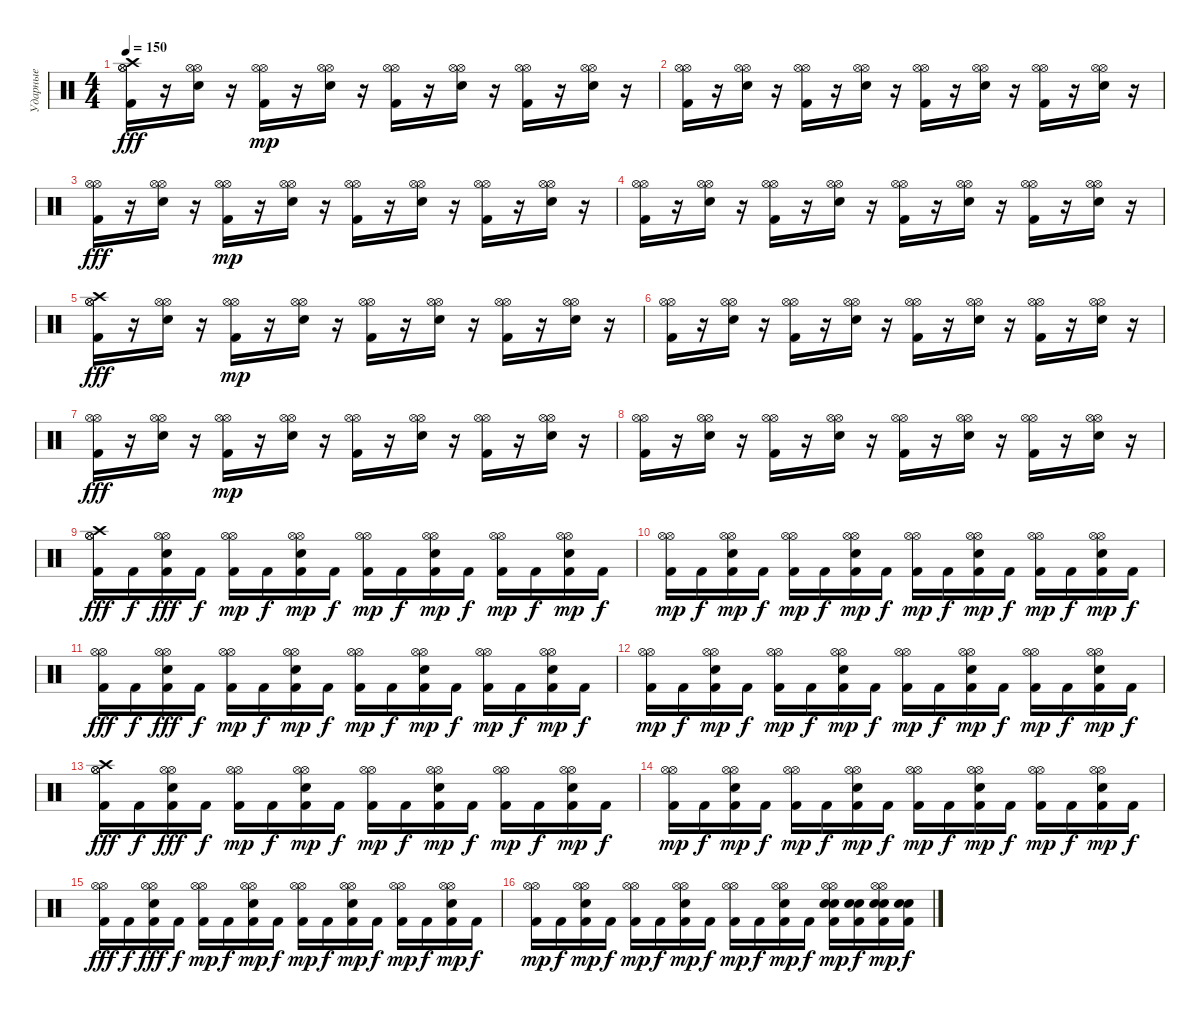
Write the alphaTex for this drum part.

\track ("Ударные" "Ударные") {instrument percussion}
\staff {score}
\articulation defaults
\ts (4 4)
\tempo 150
\clef neutral
\ks c
("Crash high (hit)" "Hi-Hat (open)" "Hi-Hat (open)" "Kick (hit) 2").16{dy fff} r.16 ("Hi-Hat (open)" "Hi-Hat (open)" "Snare (hit) 2").16 r.16 ("Hi-Hat (open)" "Hi-Hat (open)" "Kick (hit) 2").16{dy mp} r.16 ("Hi-Hat (open)" "Hi-Hat (open)" "Snare (hit) 2").16 r.16 ("Hi-Hat (open)" "Hi-Hat (open)" "Kick (hit) 2").16 r.16 ("Hi-Hat (open)" "Hi-Hat (open)" "Snare (hit) 2").16 r.16 ("Hi-Hat (open)" "Hi-Hat (open)" "Kick (hit) 2").16 r.16 ("Hi-Hat (open)" "Hi-Hat (open)" "Snare (hit) 2").16 r.16 |
("Hi-Hat (open)" "Hi-Hat (open)" "Kick (hit) 2").16 r.16 ("Hi-Hat (open)" "Hi-Hat (open)" "Snare (hit) 2").16 r.16 ("Hi-Hat (open)" "Hi-Hat (open)" "Kick (hit) 2").16 r.16 ("Hi-Hat (open)" "Hi-Hat (open)" "Snare (hit) 2").16 r.16 ("Hi-Hat (open)" "Hi-Hat (open)" "Kick (hit) 2").16 r.16 ("Hi-Hat (open)" "Hi-Hat (open)" "Snare (hit) 2").16 r.16 ("Hi-Hat (open)" "Hi-Hat (open)" "Kick (hit) 2").16 r.16 ("Hi-Hat (open)" "Hi-Hat (open)" "Snare (hit) 2").16 r.16 |
("Hi-Hat (open)" "Hi-Hat (open)" "Kick (hit) 2").16{dy fff} r.16 ("Hi-Hat (open)" "Hi-Hat (open)" "Snare (hit) 2").16 r.16 ("Hi-Hat (open)" "Hi-Hat (open)" "Kick (hit) 2").16{dy mp} r.16 ("Hi-Hat (open)" "Hi-Hat (open)" "Snare (hit) 2").16 r.16 ("Hi-Hat (open)" "Hi-Hat (open)" "Kick (hit) 2").16 r.16 ("Hi-Hat (open)" "Hi-Hat (open)" "Snare (hit) 2").16 r.16 ("Hi-Hat (open)" "Hi-Hat (open)" "Kick (hit) 2").16 r.16 ("Hi-Hat (open)" "Hi-Hat (open)" "Snare (hit) 2").16 r.16 |
("Hi-Hat (open)" "Hi-Hat (open)" "Kick (hit) 2").16 r.16 ("Hi-Hat (open)" "Hi-Hat (open)" "Snare (hit) 2").16 r.16 ("Hi-Hat (open)" "Hi-Hat (open)" "Kick (hit) 2").16 r.16 ("Hi-Hat (open)" "Hi-Hat (open)" "Snare (hit) 2").16 r.16 ("Hi-Hat (open)" "Hi-Hat (open)" "Kick (hit) 2").16 r.16 ("Hi-Hat (open)" "Hi-Hat (open)" "Snare (hit) 2").16 r.16 ("Hi-Hat (open)" "Hi-Hat (open)" "Kick (hit) 2").16 r.16 ("Hi-Hat (open)" "Hi-Hat (open)" "Snare (hit) 2").16 r.16 |
("Crash high (hit)" "Hi-Hat (open)" "Hi-Hat (open)" "Kick (hit) 2").16{dy fff} r.16 ("Hi-Hat (open)" "Hi-Hat (open)" "Snare (hit) 2").16 r.16 ("Hi-Hat (open)" "Hi-Hat (open)" "Kick (hit) 2").16{dy mp} r.16 ("Hi-Hat (open)" "Hi-Hat (open)" "Snare (hit) 2").16 r.16 ("Hi-Hat (open)" "Hi-Hat (open)" "Kick (hit) 2").16 r.16 ("Hi-Hat (open)" "Hi-Hat (open)" "Snare (hit) 2").16 r.16 ("Hi-Hat (open)" "Hi-Hat (open)" "Kick (hit) 2").16 r.16 ("Hi-Hat (open)" "Hi-Hat (open)" "Snare (hit) 2").16 r.16 |
("Hi-Hat (open)" "Hi-Hat (open)" "Kick (hit) 2").16 r.16 ("Hi-Hat (open)" "Hi-Hat (open)" "Snare (hit) 2").16 r.16 ("Hi-Hat (open)" "Hi-Hat (open)" "Kick (hit) 2").16 r.16 ("Hi-Hat (open)" "Hi-Hat (open)" "Snare (hit) 2").16 r.16 ("Hi-Hat (open)" "Hi-Hat (open)" "Kick (hit) 2").16 r.16 ("Hi-Hat (open)" "Hi-Hat (open)" "Snare (hit) 2").16 r.16 ("Hi-Hat (open)" "Hi-Hat (open)" "Kick (hit) 2").16 r.16 ("Hi-Hat (open)" "Hi-Hat (open)" "Snare (hit) 2").16 r.16 |
("Hi-Hat (open)" "Hi-Hat (open)" "Kick (hit) 2").16{dy fff} r.16 ("Hi-Hat (open)" "Hi-Hat (open)" "Snare (hit) 2").16 r.16 ("Hi-Hat (open)" "Hi-Hat (open)" "Kick (hit) 2").16{dy mp} r.16 ("Hi-Hat (open)" "Hi-Hat (open)" "Snare (hit) 2").16 r.16 ("Hi-Hat (open)" "Hi-Hat (open)" "Kick (hit) 2").16 r.16 ("Hi-Hat (open)" "Hi-Hat (open)" "Snare (hit) 2").16 r.16 ("Hi-Hat (open)" "Hi-Hat (open)" "Kick (hit) 2").16 r.16 ("Hi-Hat (open)" "Hi-Hat (open)" "Snare (hit) 2").16 r.16 |
("Hi-Hat (open)" "Hi-Hat (open)" "Kick (hit) 2").16 r.16 ("Hi-Hat (open)" "Hi-Hat (open)" "Snare (hit) 2").16 r.16 ("Hi-Hat (open)" "Hi-Hat (open)" "Kick (hit) 2").16 r.16 ("Hi-Hat (open)" "Hi-Hat (open)" "Snare (hit) 2").16 r.16 ("Hi-Hat (open)" "Hi-Hat (open)" "Kick (hit) 2").16 r.16 ("Hi-Hat (open)" "Hi-Hat (open)" "Snare (hit) 2").16 r.16 ("Hi-Hat (open)" "Hi-Hat (open)" "Kick (hit) 2").16 r.16 ("Hi-Hat (open)" "Hi-Hat (open)" "Snare (hit) 2").16 r.16 |
("Crash high (hit)" "Hi-Hat (open)" "Hi-Hat (open)" "Kick (hit) 2").16{dy fff} "Kick (hit) 2".16{dy f} ("Hi-Hat (open)" "Hi-Hat (open)" "Snare (hit) 2" "Kick (hit) 2").16{dy fff} "Kick (hit) 2".16{dy f} ("Hi-Hat (open)" "Hi-Hat (open)" "Kick (hit) 2").16{dy mp} "Kick (hit) 2".16{dy f} ("Hi-Hat (open)" "Hi-Hat (open)" "Snare (hit) 2" "Kick (hit) 2").16{dy mp} "Kick (hit) 2".16{dy f} ("Hi-Hat (open)" "Hi-Hat (open)" "Kick (hit) 2").16{dy mp} "Kick (hit) 2".16{dy f} ("Hi-Hat (open)" "Hi-Hat (open)" "Snare (hit) 2" "Kick (hit) 2").16{dy mp} "Kick (hit) 2".16{dy f} ("Hi-Hat (open)" "Hi-Hat (open)" "Kick (hit) 2").16{dy mp} "Kick (hit) 2".16{dy f} ("Hi-Hat (open)" "Hi-Hat (open)" "Snare (hit) 2" "Kick (hit) 2").16{dy mp} "Kick (hit) 2".16{dy f} |
("Hi-Hat (open)" "Hi-Hat (open)" "Kick (hit) 2").16{dy mp} "Kick (hit) 2".16{dy f} ("Hi-Hat (open)" "Hi-Hat (open)" "Snare (hit) 2" "Kick (hit) 2").16{dy mp} "Kick (hit) 2".16{dy f} ("Hi-Hat (open)" "Hi-Hat (open)" "Kick (hit) 2").16{dy mp} "Kick (hit) 2".16{dy f} ("Hi-Hat (open)" "Hi-Hat (open)" "Snare (hit) 2" "Kick (hit) 2").16{dy mp} "Kick (hit) 2".16{dy f} ("Hi-Hat (open)" "Hi-Hat (open)" "Kick (hit) 2").16{dy mp} "Kick (hit) 2".16{dy f} ("Hi-Hat (open)" "Hi-Hat (open)" "Snare (hit) 2" "Kick (hit) 2").16{dy mp} "Kick (hit) 2".16{dy f} ("Hi-Hat (open)" "Hi-Hat (open)" "Kick (hit) 2").16{dy mp} "Kick (hit) 2".16{dy f} ("Hi-Hat (open)" "Hi-Hat (open)" "Snare (hit) 2" "Kick (hit) 2").16{dy mp} "Kick (hit) 2".16{dy f} |
("Hi-Hat (open)" "Hi-Hat (open)" "Kick (hit) 2").16{dy fff} "Kick (hit) 2".16{dy f} ("Hi-Hat (open)" "Hi-Hat (open)" "Snare (hit) 2" "Kick (hit) 2").16{dy fff} "Kick (hit) 2".16{dy f} ("Hi-Hat (open)" "Hi-Hat (open)" "Kick (hit) 2").16{dy mp} "Kick (hit) 2".16{dy f} ("Hi-Hat (open)" "Hi-Hat (open)" "Snare (hit) 2" "Kick (hit) 2").16{dy mp} "Kick (hit) 2".16{dy f} ("Hi-Hat (open)" "Hi-Hat (open)" "Kick (hit) 2").16{dy mp} "Kick (hit) 2".16{dy f} ("Hi-Hat (open)" "Hi-Hat (open)" "Snare (hit) 2" "Kick (hit) 2").16{dy mp} "Kick (hit) 2".16{dy f} ("Hi-Hat (open)" "Hi-Hat (open)" "Kick (hit) 2").16{dy mp} "Kick (hit) 2".16{dy f} ("Hi-Hat (open)" "Hi-Hat (open)" "Snare (hit) 2" "Kick (hit) 2").16{dy mp} "Kick (hit) 2".16{dy f} |
("Hi-Hat (open)" "Hi-Hat (open)" "Kick (hit) 2").16{dy mp} "Kick (hit) 2".16{dy f} ("Hi-Hat (open)" "Hi-Hat (open)" "Snare (hit) 2" "Kick (hit) 2").16{dy mp} "Kick (hit) 2".16{dy f} ("Hi-Hat (open)" "Hi-Hat (open)" "Kick (hit) 2").16{dy mp} "Kick (hit) 2".16{dy f} ("Hi-Hat (open)" "Hi-Hat (open)" "Snare (hit) 2" "Kick (hit) 2").16{dy mp} "Kick (hit) 2".16{dy f} ("Hi-Hat (open)" "Hi-Hat (open)" "Kick (hit) 2").16{dy mp} "Kick (hit) 2".16{dy f} ("Hi-Hat (open)" "Hi-Hat (open)" "Snare (hit) 2" "Kick (hit) 2").16{dy mp} "Kick (hit) 2".16{dy f} ("Hi-Hat (open)" "Hi-Hat (open)" "Kick (hit) 2").16{dy mp} "Kick (hit) 2".16{dy f} ("Hi-Hat (open)" "Hi-Hat (open)" "Snare (hit) 2" "Kick (hit) 2").16{dy mp} "Kick (hit) 2".16{dy f} |
("Crash high (hit)" "Hi-Hat (open)" "Hi-Hat (open)" "Kick (hit) 2").16{dy fff} "Kick (hit) 2".16{dy f} ("Hi-Hat (open)" "Hi-Hat (open)" "Snare (hit) 2" "Kick (hit) 2").16{dy fff} "Kick (hit) 2".16{dy f} ("Hi-Hat (open)" "Hi-Hat (open)" "Kick (hit) 2").16{dy mp} "Kick (hit) 2".16{dy f} ("Hi-Hat (open)" "Hi-Hat (open)" "Snare (hit) 2" "Kick (hit) 2").16{dy mp} "Kick (hit) 2".16{dy f} ("Hi-Hat (open)" "Hi-Hat (open)" "Kick (hit) 2").16{dy mp} "Kick (hit) 2".16{dy f} ("Hi-Hat (open)" "Hi-Hat (open)" "Snare (hit) 2" "Kick (hit) 2").16{dy mp} "Kick (hit) 2".16{dy f} ("Hi-Hat (open)" "Hi-Hat (open)" "Kick (hit) 2").16{dy mp} "Kick (hit) 2".16{dy f} ("Hi-Hat (open)" "Hi-Hat (open)" "Snare (hit) 2" "Kick (hit) 2").16{dy mp} "Kick (hit) 2".16{dy f} |
("Hi-Hat (open)" "Hi-Hat (open)" "Kick (hit) 2").16{dy mp} "Kick (hit) 2".16{dy f} ("Hi-Hat (open)" "Hi-Hat (open)" "Snare (hit) 2" "Kick (hit) 2").16{dy mp} "Kick (hit) 2".16{dy f} ("Hi-Hat (open)" "Hi-Hat (open)" "Kick (hit) 2").16{dy mp} "Kick (hit) 2".16{dy f} ("Hi-Hat (open)" "Hi-Hat (open)" "Snare (hit) 2" "Kick (hit) 2").16{dy mp} "Kick (hit) 2".16{dy f} ("Hi-Hat (open)" "Hi-Hat (open)" "Kick (hit) 2").16{dy mp} "Kick (hit) 2".16{dy f} ("Hi-Hat (open)" "Hi-Hat (open)" "Snare (hit) 2" "Kick (hit) 2").16{dy mp} "Kick (hit) 2".16{dy f} ("Hi-Hat (open)" "Hi-Hat (open)" "Kick (hit) 2").16{dy mp} "Kick (hit) 2".16{dy f} ("Hi-Hat (open)" "Hi-Hat (open)" "Snare (hit) 2" "Kick (hit) 2").16{dy mp} "Kick (hit) 2".16{dy f} |
("Hi-Hat (open)" "Hi-Hat (open)" "Kick (hit) 2").16{dy fff} "Kick (hit) 2".16{dy f} ("Hi-Hat (open)" "Hi-Hat (open)" "Snare (hit) 2" "Kick (hit) 2").16{dy fff} "Kick (hit) 2".16{dy f} ("Hi-Hat (open)" "Hi-Hat (open)" "Kick (hit) 2").16{dy mp} "Kick (hit) 2".16{dy f} ("Hi-Hat (open)" "Hi-Hat (open)" "Snare (hit) 2" "Kick (hit) 2").16{dy mp} "Kick (hit) 2".16{dy f} ("Hi-Hat (open)" "Hi-Hat (open)" "Kick (hit) 2").16{dy mp} "Kick (hit) 2".16{dy f} ("Hi-Hat (open)" "Hi-Hat (open)" "Snare (hit) 2" "Kick (hit) 2").16{dy mp} "Kick (hit) 2".16{dy f} ("Hi-Hat (open)" "Hi-Hat (open)" "Kick (hit) 2").16{dy mp} "Kick (hit) 2".16{dy f} ("Hi-Hat (open)" "Hi-Hat (open)" "Snare (hit) 2" "Kick (hit) 2").16{dy mp} "Kick (hit) 2".16{dy f} |
("Hi-Hat (open)" "Hi-Hat (open)" "Kick (hit) 2").16{dy mp} "Kick (hit) 2".16{dy f} ("Hi-Hat (open)" "Hi-Hat (open)" "Snare (hit) 2" "Kick (hit) 2").16{dy mp} "Kick (hit) 2".16{dy f} ("Hi-Hat (open)" "Hi-Hat (open)" "Kick (hit) 2").16{dy mp} "Kick (hit) 2".16{dy f} ("Hi-Hat (open)" "Hi-Hat (open)" "Snare (hit) 2" "Kick (hit) 2").16{dy mp} "Kick (hit) 2".16{dy f} ("Hi-Hat (open)" "Hi-Hat (open)" "Kick (hit) 2").16{dy mp} "Kick (hit) 2".16{dy f} ("Hi-Hat (open)" "Hi-Hat (open)" "Snare (hit) 2" "Kick (hit) 2").16{dy mp} "Kick (hit) 2".16{dy f} ("Hi-Hat (open)" "Hi-Hat (open)" "Snare (hit) 2" "Snare (hit) 2" "Kick (hit) 2").16{dy mp} ("Snare (hit) 2" "Snare (hit) 2" "Kick (hit) 2").16{dy f} ("Hi-Hat (open)" "Hi-Hat (open)" "Snare (hit) 2" "Snare (hit) 2" "Kick (hit) 2").16{dy mp} ("Snare (hit) 2" "Snare (hit) 2" "Kick (hit) 2").16{dy f}
